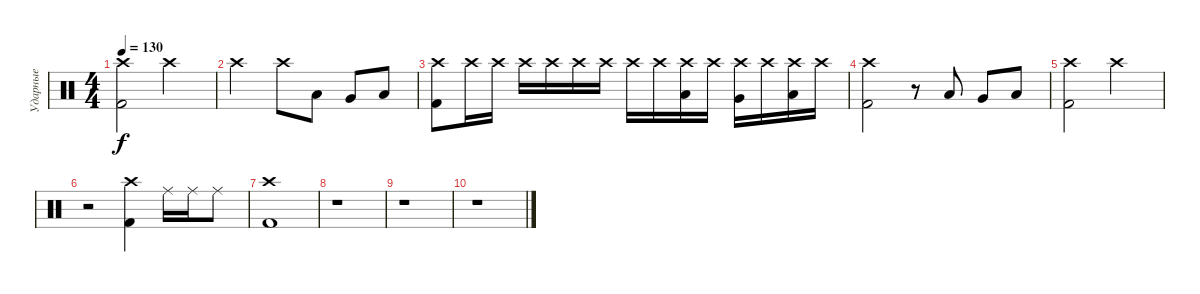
\track ("Ударные" "Ударные") {instrument percussion}
\staff {score}
\articulation defaults
\ts (4 4)
\tempo 130
\clef neutral
\ks c
("Crash high (hit)" "Kick (hit) 2").2{dy f} "Crash high (hit)".2 |
"Crash high (hit)".2 "Crash high (hit)".8 "Low Tom (hit)".8 "Very Low Tom (hit)".8 "Low Floor Tom (hit)".8 |
("Crash high (hit)" "Kick (hit) 2").8 "Crash high (hit)".16{volume 9} "Crash high (hit)".16{volume 13} "Crash high (hit)".16 "Crash high (hit)".16 "Crash high (hit)".16 "Crash high (hit)".16 "Crash high (hit)".16 "Crash high (hit)".16 ("Crash high (hit)" "Low Tom (hit)").16 "Crash high (hit)".16 ("Crash high (hit)" "Very Low Tom (hit)").16 "Crash high (hit)".16 ("Crash high (hit)" "Low Floor Tom (hit)").16 "Crash high (hit)".16 |
("Crash high (hit)" "Kick (hit) 2").2 r.8 "Low Tom (hit)".8 "Very Low Tom (hit)".8 "Low Floor Tom (hit)".8 |
("Crash high (hit)" "Kick (hit) 2").2 "Crash high (hit)".2 |
r.2 ("Crash high (hit)" "Kick (hit) 2").4 "Ride (middle)".16 "Ride (middle)".16 "Ride (middle)".8 |
("Crash high (hit)" "Kick (hit) 2").1 |
r.1 |
r.1 |
r.1
